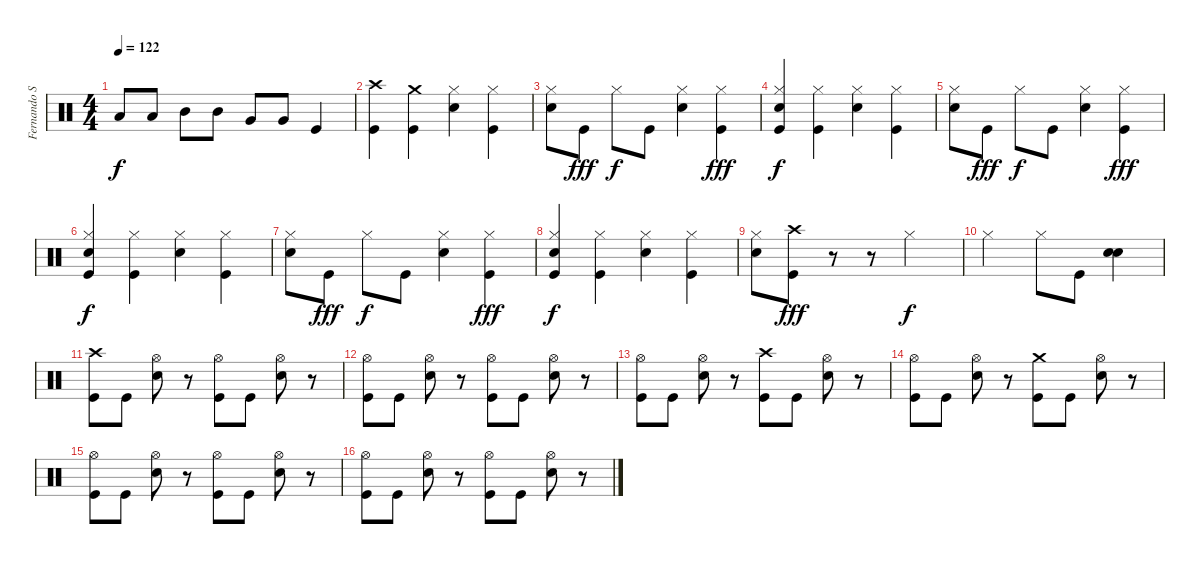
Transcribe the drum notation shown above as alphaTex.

\track ("Fernando Sanchez" "Fernando S") {instrument percussion}
\staff {score}
\articulation defaults
\ts (4 4)
\tempo 122
\clef neutral
\ks c "Low Tom (hit)".8{dy f} "Low Tom (hit)".8 "Mid Tom (hit)".8 "Mid Tom (hit)".8 "Very Low Tom (hit)".8 "Very Low Tom (hit)".8 "Kick (hit)".4
|
("Crash high (hit)" "Kick (hit)").4 ("Crash medium (hit)" "Kick (hit)").4 ("Hi-Hat (closed)" "Electric Snare (hit)").4 ("Hi-Hat (closed)" "Kick (hit)").4 |
("Hi-Hat (closed)" "Electric Snare (hit)").8 "Kick (hit)".8{dy fff} "Hi-Hat (closed)".8{dy f} "Kick (hit)".8 ("Hi-Hat (closed)" "Electric Snare (hit)").4 ("Hi-Hat (closed)" "Kick (hit)").4{dy fff} |
("Hi-Hat (closed)" "Electric Snare (hit)" "Kick (hit)").4{dy f} ("Hi-Hat (closed)" "Kick (hit)").4 ("Hi-Hat (closed)" "Electric Snare (hit)").4 ("Hi-Hat (closed)" "Kick (hit)").4 |
("Hi-Hat (closed)" "Electric Snare (hit)").8 "Kick (hit)".8{dy fff} "Hi-Hat (closed)".8{dy f} "Kick (hit)".8 ("Hi-Hat (closed)" "Electric Snare (hit)").4 ("Hi-Hat (closed)" "Kick (hit)").4{dy fff} |
("Hi-Hat (closed)" "Electric Snare (hit)" "Kick (hit)").4{dy f} ("Hi-Hat (closed)" "Kick (hit)").4 ("Hi-Hat (closed)" "Electric Snare (hit)").4 ("Hi-Hat (closed)" "Kick (hit)").4 |
("Hi-Hat (closed)" "Electric Snare (hit)").8 "Kick (hit)".8{dy fff} "Hi-Hat (closed)".8{dy f} "Kick (hit)".8 ("Hi-Hat (closed)" "Electric Snare (hit)").4 ("Hi-Hat (closed)" "Kick (hit)").4{dy fff} |
("Hi-Hat (closed)" "Electric Snare (hit)" "Kick (hit)").4{dy f} ("Hi-Hat (closed)" "Kick (hit)").4 ("Hi-Hat (closed)" "Electric Snare (hit)").4 ("Hi-Hat (closed)" "Kick (hit)").4 |
("Hi-Hat (closed)" "Electric Snare (hit)").8 ("Crash high (hit)" "Kick (hit)").8{dy fff} r.8 r.8 "Hi-Hat (closed)".2{dy f} |
"Hi-Hat (closed)".2 "Hi-Hat (closed)".8 "Kick (hit)".8 ("Electric Snare (hit)" "Electric Snare (hit)").4{bd 240} |
("Crash high (hit)" "Kick (hit)").8 "Kick (hit)".8 ("Hi-Hat (open)" "Electric Snare (hit)").8 r.8 ("Hi-Hat (open)" "Kick (hit)").8 "Kick (hit)".8 ("Hi-Hat (open)" "Electric Snare (hit)").8 r.8 |
("Hi-Hat (open)" "Kick (hit)").8 "Kick (hit)".8 ("Hi-Hat (open)" "Electric Snare (hit)").8 r.8 ("Hi-Hat (open)" "Kick (hit)").8 "Kick (hit)".8 ("Hi-Hat (open)" "Electric Snare (hit)").8 r.8 |
("Hi-Hat (open)" "Kick (hit)").8 "Kick (hit)".8 ("Hi-Hat (open)" "Electric Snare (hit)").8 r.8 ("Crash high (hit)" "Kick (hit)").8 "Kick (hit)".8 ("Hi-Hat (open)" "Electric Snare (hit)").8 r.8 |
("Hi-Hat (open)" "Kick (hit)").8 "Kick (hit)".8 ("Hi-Hat (open)" "Electric Snare (hit)").8 r.8 ("Crash medium (hit)" "Kick (hit)").8 "Kick (hit)".8 ("Hi-Hat (open)" "Electric Snare (hit)").8 r.8 |
("Hi-Hat (open)" "Kick (hit)").8 "Kick (hit)".8 ("Hi-Hat (open)" "Electric Snare (hit)").8 r.8 ("Hi-Hat (open)" "Kick (hit)").8 "Kick (hit)".8 ("Hi-Hat (open)" "Electric Snare (hit)").8 r.8 |
("Hi-Hat (open)" "Kick (hit)").8 "Kick (hit)".8 ("Hi-Hat (open)" "Electric Snare (hit)").8 r.8 ("Hi-Hat (open)" "Kick (hit)").8 "Kick (hit)".8 ("Hi-Hat (open)" "Electric Snare (hit)").8 r.8
